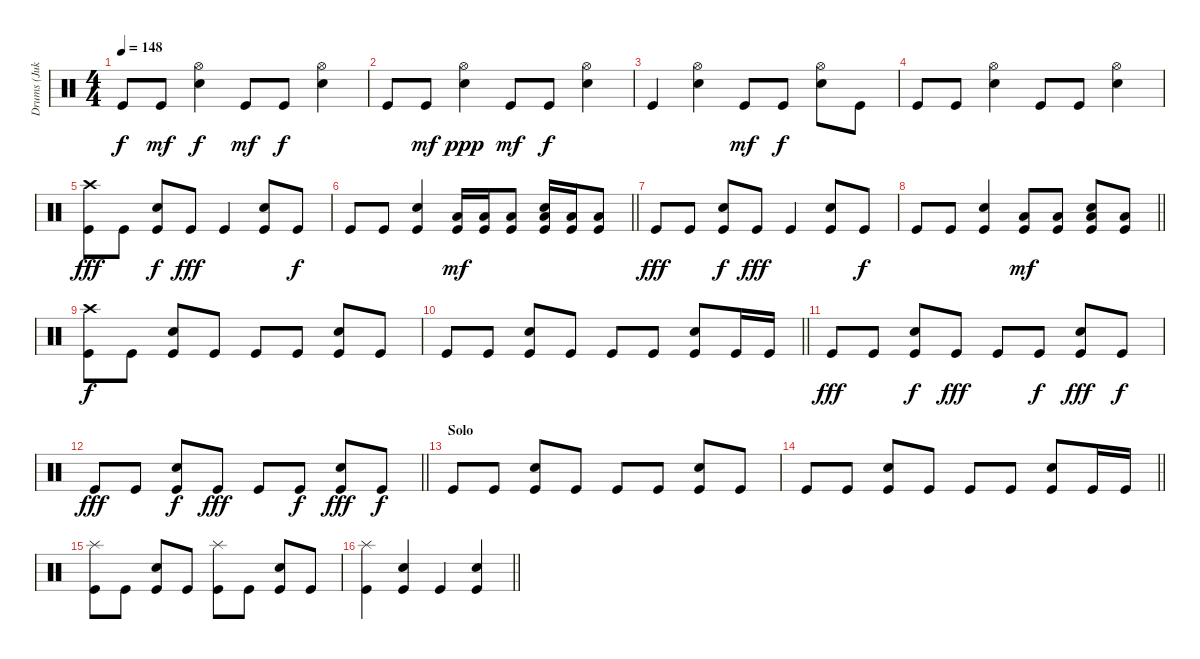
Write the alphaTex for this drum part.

\track ("Drums (Jukka)" "Drums (Juk") {instrument percussion}
\staff {score}
\articulation defaults
\ts (4 4)
\tempo 148
\clef neutral
\ks c "Kick (hit)".8{dy f} "Kick (hit)".8{dy mf}
("Snare (hit) 2" "Hi-Hat (open)").4{dy f} "Kick (hit)".8{dy mf} "Kick (hit)".8{dy f} ("Snare (hit) 2" "Hi-Hat (open)").4 |
"Kick (hit)".8 "Kick (hit)".8{dy mf} ("Snare (hit) 2" "Hi-Hat (open)").4{dy ppp} "Kick (hit)".8{dy mf} "Kick (hit)".8{dy f} ("Snare (hit) 2" "Hi-Hat (open)").4 |
"Kick (hit)".4 ("Snare (hit) 2" "Hi-Hat (open)").4 "Kick (hit)".8{dy mf} "Kick (hit)".8{dy f} ("Snare (hit) 2" "Hi-Hat (open)").8 "Kick (hit)".8 |
"Kick (hit)".8 "Kick (hit)".8 ("Snare (hit) 2" "Hi-Hat (open)").4 "Kick (hit)".8 "Kick (hit)".8 ("Snare (hit) 2" "Hi-Hat (open)").4 |
("Kick (hit)" "Crash high (hit)").8{dy fff} "Kick (hit)".8 ("Kick (hit)" "Snare (hit) 2").8{dy f} "Kick (hit)".8{dy fff} "Kick (hit)".4 ("Kick (hit)" "Snare (hit) 2").8 "Kick (hit)".8{dy f} |
\barLineRight lightlight "Kick (hit)".8 "Kick (hit)".8
("Kick (hit)" "Snare (hit) 2").4 ("Kick (hit)" "Low Floor Tom (hit)").16{dy mf} ("Kick (hit)" "Low Floor Tom (hit)").16 ("Kick (hit)" "Low Floor Tom (hit)").8 ("Kick (hit)" "Low Floor Tom (hit)" "Snare (hit) 2").16 ("Kick (hit)" "Low Floor Tom (hit)").16 ("Kick (hit)" "Low Floor Tom (hit)").8 |
"Kick (hit)".8{dy fff} "Kick (hit)".8 ("Kick (hit)" "Snare (hit) 2").8{dy f} "Kick (hit)".8{dy fff} "Kick (hit)".4 ("Kick (hit)" "Snare (hit) 2").8 "Kick (hit)".8{dy f} |
\barLineRight lightlight "Kick (hit)".8 "Kick (hit)".8
("Kick (hit)" "Snare (hit) 2").4 ("Kick (hit)" "Low Floor Tom (hit)").8{dy mf} ("Kick (hit)" "Low Floor Tom (hit)").8 ("Kick (hit)" "Low Floor Tom (hit)" "Snare (hit) 2").8 ("Kick (hit)" "Low Floor Tom (hit)").8 |
("Kick (hit)" "Crash high (hit)").8{dy f} "Kick (hit)".8 ("Kick (hit)" "Snare (hit) 2").8 "Kick (hit)".8 "Kick (hit)".8 "Kick (hit)".8 ("Kick (hit)" "Snare (hit) 2").8 "Kick (hit)".8 |
\barLineRight lightlight "Kick (hit)".8 "Kick (hit)".8
("Kick (hit)" "Snare (hit) 2").8 "Kick (hit)".8 "Kick (hit)".8 "Kick (hit)".8 ("Kick (hit)" "Snare (hit) 2").8 "Kick (hit)".16 "Kick (hit)".16 |
"Kick (hit)".8{dy fff} "Kick (hit)".8 ("Kick (hit)" "Snare (hit) 2").8{dy f} "Kick (hit)".8{dy fff} "Kick (hit)".8 "Kick (hit)".8{dy f} ("Kick (hit)" "Snare (hit) 2").8{dy fff} "Kick (hit)".8{dy f} |
\barLineRight lightlight "Kick (hit)".8{dy fff} "Kick (hit)".8
("Kick (hit)" "Snare (hit) 2").8{dy f} "Kick (hit)".8{dy fff} "Kick (hit)".8 "Kick (hit)".8{dy f} ("Kick (hit)" "Snare (hit) 2").8{dy fff} "Kick (hit)".8{dy f} |
\section ("" "Solo ")
"Kick (hit)".8 "Kick (hit)".8 ("Kick (hit)" "Snare (hit) 2").8 "Kick (hit)".8 "Kick (hit)".8 "Kick (hit)".8 ("Kick (hit)" "Snare (hit) 2").8 "Kick (hit)".8 |
\barLineRight lightlight "Kick (hit)".8 "Kick (hit)".8
("Kick (hit)" "Snare (hit) 2").8 "Kick (hit)".8 "Kick (hit)".8 "Kick (hit)".8 ("Kick (hit)" "Snare (hit) 2").8 "Kick (hit)".16 "Kick (hit)".16 |
("Kick (hit)" "Splash (hit)").8 "Kick (hit)".8 ("Kick (hit)" "Snare (hit) 2").8 "Kick (hit)".8 ("Kick (hit)" "Splash (hit)").8 "Kick (hit)".8 ("Kick (hit)" "Snare (hit) 2").8 "Kick (hit)".8 |
\barLineRight lightlight
("Kick (hit)" "Splash (hit)").4 ("Kick (hit)" "Snare (hit) 2").4 "Kick (hit)".4 ("Kick (hit)" "Snare (hit) 2").4
